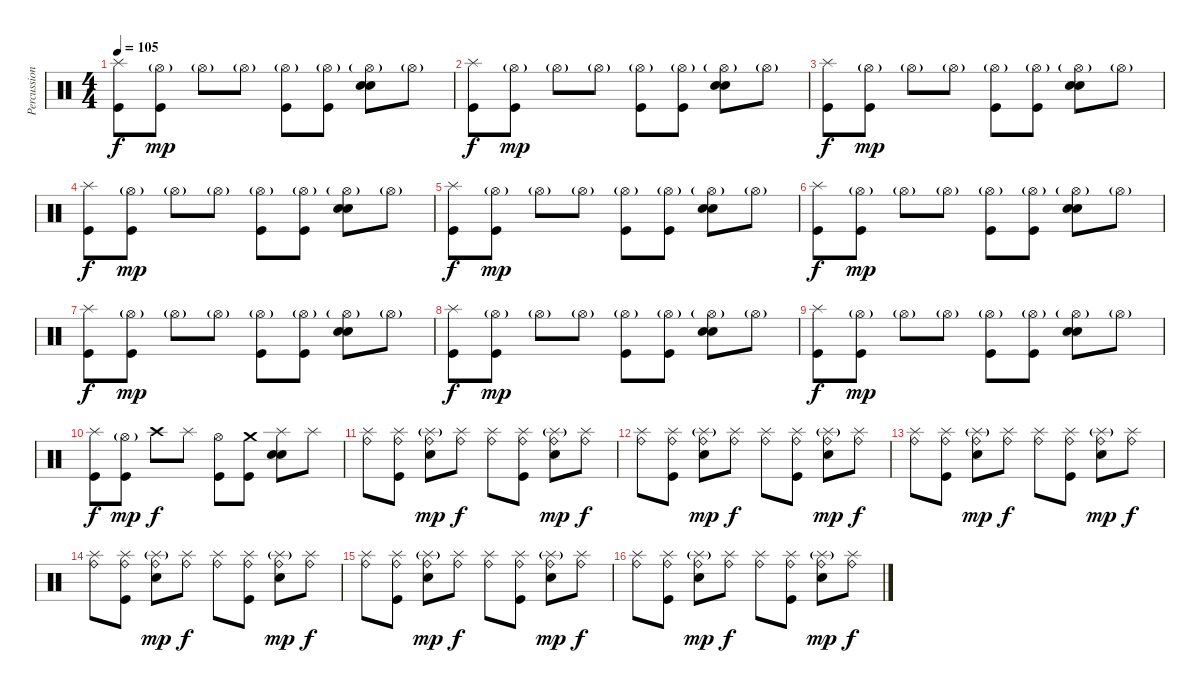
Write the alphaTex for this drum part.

\track ("Percussion" "Percussion") {instrument percussion}
\staff {score}
\articulation defaults
\ts (4 4)
\tempo 105
\clef neutral
\ks c
("Splash (hit)" "Kick (hit)").8{dy f} ("Hi-Hat (open)"{g} "Kick (hit)").8{dy mp} "Hi-Hat (open)"{g}.8 "Hi-Hat (open)"{g}.8 ("Hi-Hat (open)"{g} "Kick (hit)").8 ("Hi-Hat (open)"{g} "Kick (hit)").8 ("Snare (hit) 2" "Hi-Hat (open)"{g} "Snare (hit) 2").8 "Hi-Hat (open)"{g}.8 |
("Splash (hit)" "Kick (hit)").8{dy f} ("Hi-Hat (open)"{g} "Kick (hit)").8{dy mp} "Hi-Hat (open)"{g}.8 "Hi-Hat (open)"{g}.8 ("Hi-Hat (open)"{g} "Kick (hit)").8 ("Hi-Hat (open)"{g} "Kick (hit)").8 ("Snare (hit) 2" "Hi-Hat (open)"{g} "Snare (hit) 2").8 "Hi-Hat (open)"{g}.8 |
("Splash (hit)" "Kick (hit)").8{dy f} ("Hi-Hat (open)"{g} "Kick (hit)").8{dy mp} "Hi-Hat (open)"{g}.8 "Hi-Hat (open)"{g}.8 ("Hi-Hat (open)"{g} "Kick (hit)").8 ("Hi-Hat (open)"{g} "Kick (hit)").8 ("Snare (hit) 2" "Hi-Hat (open)"{g} "Snare (hit) 2").8 "Hi-Hat (open)"{g}.8 |
("Splash (hit)" "Kick (hit)").8{dy f} ("Hi-Hat (open)"{g} "Kick (hit)").8{dy mp} "Hi-Hat (open)"{g}.8 "Hi-Hat (open)"{g}.8 ("Hi-Hat (open)"{g} "Kick (hit)").8 ("Hi-Hat (open)"{g} "Kick (hit)").8 ("Snare (hit) 2" "Hi-Hat (open)"{g} "Snare (hit) 2").8 "Hi-Hat (open)"{g}.8 |
("Splash (hit)" "Kick (hit)").8{dy f} ("Hi-Hat (open)"{g} "Kick (hit)").8{dy mp} "Hi-Hat (open)"{g}.8 "Hi-Hat (open)"{g}.8 ("Hi-Hat (open)"{g} "Kick (hit)").8 ("Hi-Hat (open)"{g} "Kick (hit)").8 ("Snare (hit) 2" "Hi-Hat (open)"{g} "Snare (hit) 2").8 "Hi-Hat (open)"{g}.8 |
("Splash (hit)" "Kick (hit)").8{dy f} ("Hi-Hat (open)"{g} "Kick (hit)").8{dy mp} "Hi-Hat (open)"{g}.8 "Hi-Hat (open)"{g}.8 ("Hi-Hat (open)"{g} "Kick (hit)").8 ("Hi-Hat (open)"{g} "Kick (hit)").8 ("Snare (hit) 2" "Hi-Hat (open)"{g} "Snare (hit) 2").8 "Hi-Hat (open)"{g}.8 |
("Splash (hit)" "Kick (hit)").8{dy f} ("Hi-Hat (open)"{g} "Kick (hit)").8{dy mp} "Hi-Hat (open)"{g}.8 "Hi-Hat (open)"{g}.8 ("Hi-Hat (open)"{g} "Kick (hit)").8 ("Hi-Hat (open)"{g} "Kick (hit)").8 ("Snare (hit) 2" "Hi-Hat (open)"{g} "Snare (hit) 2").8 "Hi-Hat (open)"{g}.8 |
("Splash (hit)" "Kick (hit)").8{dy f} ("Hi-Hat (open)"{g} "Kick (hit)").8{dy mp} "Hi-Hat (open)"{g}.8 "Hi-Hat (open)"{g}.8 ("Hi-Hat (open)"{g} "Kick (hit)").8 ("Hi-Hat (open)"{g} "Kick (hit)").8 ("Snare (hit) 2" "Hi-Hat (open)"{g} "Snare (hit) 2").8 "Hi-Hat (open)"{g}.8 |
("Splash (hit)" "Kick (hit)").8{dy f} ("Hi-Hat (open)"{g} "Kick (hit)").8{dy mp} "Hi-Hat (open)"{g}.8 "Hi-Hat (open)"{g}.8 ("Hi-Hat (open)"{g} "Kick (hit)").8 ("Hi-Hat (open)"{g} "Kick (hit)").8 ("Snare (hit) 2" "Hi-Hat (open)"{g} "Snare (hit) 2").8 "Hi-Hat (open)"{g}.8 |
("Splash (hit)" "Kick (hit)").8{dy f} ("Hi-Hat (open)"{g} "Kick (hit)").8{dy mp} "Crash high (hit)".8{dy f} "Splash (hit)".8 ("Hi-Hat (open)" "Kick (hit)").8 ("Crash medium (hit)" "Kick (hit)").8 ("Snare (hit) 2" "Splash (hit)" "Snare (hit) 2").8 "Splash (hit)".8 |
("Ride (bell)" "Splash (hit)").8 ("Kick (hit)" "Ride (bell)" "Splash (hit)").8 ("Snare (hit) 2" "Ride (bell)" "Splash (hit)"{g}).8{dy mp} ("Ride (bell)" "Splash (hit)").8{dy f} ("Ride (bell)" "Splash (hit)").8 ("Kick (hit)" "Ride (bell)" "Splash (hit)").8 ("Snare (hit) 2" "Ride (bell)" "Splash (hit)"{g}).8{dy mp} ("Ride (bell)" "Splash (hit)").8{dy f} |
("Ride (bell)" "Splash (hit)").8 ("Kick (hit)" "Ride (bell)" "Splash (hit)").8 ("Snare (hit) 2" "Ride (bell)" "Splash (hit)"{g}).8{dy mp} ("Ride (bell)" "Splash (hit)").8{dy f} ("Ride (bell)" "Splash (hit)").8 ("Kick (hit)" "Ride (bell)" "Splash (hit)").8 ("Snare (hit) 2" "Ride (bell)" "Splash (hit)"{g}).8{dy mp} ("Ride (bell)" "Splash (hit)").8{dy f} |
("Ride (bell)" "Splash (hit)").8 ("Kick (hit)" "Ride (bell)" "Splash (hit)").8 ("Snare (hit) 2" "Ride (bell)" "Splash (hit)"{g}).8{dy mp} ("Ride (bell)" "Splash (hit)").8{dy f} ("Ride (bell)" "Splash (hit)").8 ("Kick (hit)" "Ride (bell)" "Splash (hit)").8 ("Snare (hit) 2" "Ride (bell)" "Splash (hit)"{g}).8{dy mp} ("Ride (bell)" "Splash (hit)").8{dy f} |
("Ride (bell)" "Splash (hit)").8 ("Kick (hit)" "Ride (bell)" "Splash (hit)").8 ("Snare (hit) 2" "Ride (bell)" "Splash (hit)"{g}).8{dy mp} ("Ride (bell)" "Splash (hit)").8{dy f} ("Ride (bell)" "Splash (hit)").8 ("Kick (hit)" "Ride (bell)" "Splash (hit)").8 ("Snare (hit) 2" "Ride (bell)" "Splash (hit)"{g}).8{dy mp} ("Ride (bell)" "Splash (hit)").8{dy f} |
("Ride (bell)" "Splash (hit)").8 ("Kick (hit)" "Ride (bell)" "Splash (hit)").8 ("Snare (hit) 2" "Ride (bell)" "Splash (hit)"{g}).8{dy mp} ("Ride (bell)" "Splash (hit)").8{dy f} ("Ride (bell)" "Splash (hit)").8 ("Kick (hit)" "Ride (bell)" "Splash (hit)").8 ("Snare (hit) 2" "Ride (bell)" "Splash (hit)"{g}).8{dy mp} ("Ride (bell)" "Splash (hit)").8{dy f} |
("Ride (bell)" "Splash (hit)").8 ("Kick (hit)" "Ride (bell)" "Splash (hit)").8 ("Snare (hit) 2" "Ride (bell)" "Splash (hit)"{g}).8{dy mp} ("Ride (bell)" "Splash (hit)").8{dy f} ("Ride (bell)" "Splash (hit)").8 ("Kick (hit)" "Ride (bell)" "Splash (hit)").8 ("Snare (hit) 2" "Ride (bell)" "Splash (hit)"{g}).8{dy mp} ("Ride (bell)" "Splash (hit)").8{dy f}
